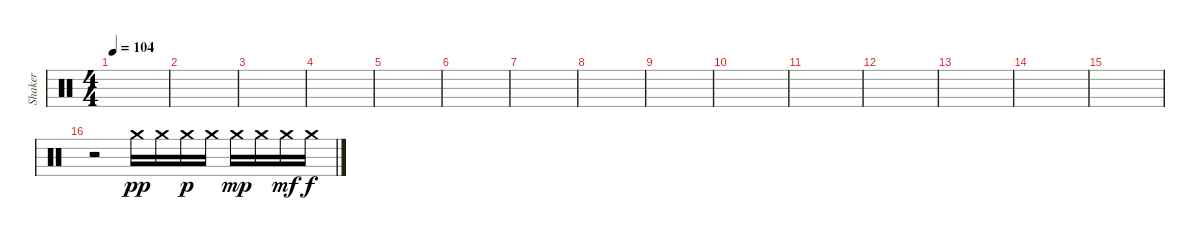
\track ("Shaker" "Shaker") {instrument percussion}
\staff {score}
\articulation defaults
\ts (4 4)
\tempo 104
\clef neutral
\ks c
|
|
|
|
|
|
|
|
|
|
|
|
|
|
|
r.2 "Crash medium (hit)".16{dy pp} "Crash medium (hit)".16 "Crash medium (hit)".16{dy p} "Crash medium (hit)".16 "Crash medium (hit)".16{dy mp} "Crash medium (hit)".16 "Crash medium (hit)".16{dy mf} "Crash medium (hit)".16{dy f}
